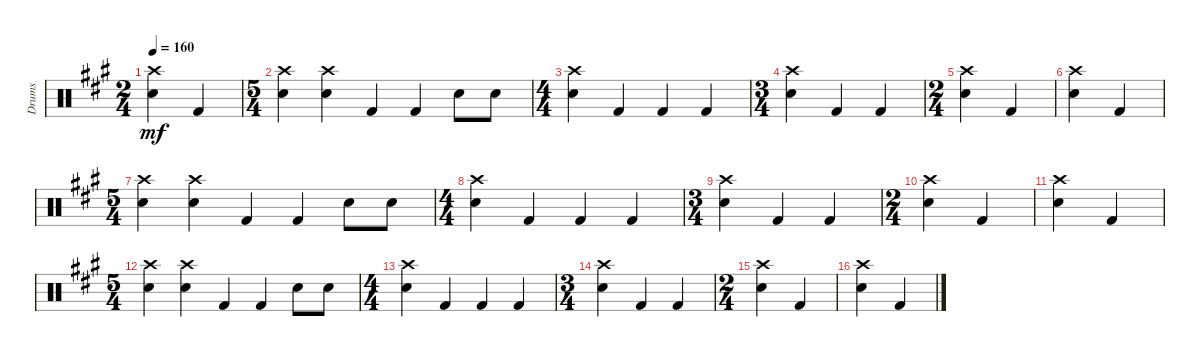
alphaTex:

\track ("Drums" "Drums") {instrument percussion}
\staff {score}
\articulation defaults
\ts (2 4)
\tempo 160
\clef neutral
\ks a
("Crash high (hit)" "Snare (hit) 2").4{dy mf} "Kick (hit) 2".4 |
\ts (5 4)
("Crash high (hit)" "Snare (hit) 2").4 ("Crash high (hit)" "Snare (hit) 2").4 "Kick (hit) 2".4 "Kick (hit) 2".4 "Snare (hit) 2".8 "Snare (hit) 2".8 |
\ts (4 4)
("Crash high (hit)" "Snare (hit) 2").4 "Kick (hit) 2".4 "Kick (hit) 2".4 "Kick (hit) 2".4 |
\ts (3 4)
("Crash high (hit)" "Snare (hit) 2").4 "Kick (hit) 2".4 "Kick (hit) 2".4 |
\ts (2 4)
("Crash high (hit)" "Snare (hit) 2").4 "Kick (hit) 2".4 |
("Crash high (hit)" "Snare (hit) 2").4 "Kick (hit) 2".4 |
\ts (5 4)
("Crash high (hit)" "Snare (hit) 2").4 ("Crash high (hit)" "Snare (hit) 2").4 "Kick (hit) 2".4 "Kick (hit) 2".4 "Snare (hit) 2".8 "Snare (hit) 2".8 |
\ts (4 4)
("Crash high (hit)" "Snare (hit) 2").4 "Kick (hit) 2".4 "Kick (hit) 2".4 "Kick (hit) 2".4 |
\ts (3 4)
("Crash high (hit)" "Snare (hit) 2").4 "Kick (hit) 2".4 "Kick (hit) 2".4 |
\ts (2 4)
("Crash high (hit)" "Snare (hit) 2").4 "Kick (hit) 2".4 |
("Crash high (hit)" "Snare (hit) 2").4 "Kick (hit) 2".4 |
\ts (5 4)
("Crash high (hit)" "Snare (hit) 2").4 ("Crash high (hit)" "Snare (hit) 2").4 "Kick (hit) 2".4 "Kick (hit) 2".4 "Snare (hit) 2".8 "Snare (hit) 2".8 |
\ts (4 4)
("Crash high (hit)" "Snare (hit) 2").4 "Kick (hit) 2".4 "Kick (hit) 2".4 "Kick (hit) 2".4 |
\ts (3 4)
("Crash high (hit)" "Snare (hit) 2").4 "Kick (hit) 2".4 "Kick (hit) 2".4 |
\ts (2 4)
("Crash high (hit)" "Snare (hit) 2").4 "Kick (hit) 2".4 |
("Crash high (hit)" "Snare (hit) 2").4 "Kick (hit) 2".4
